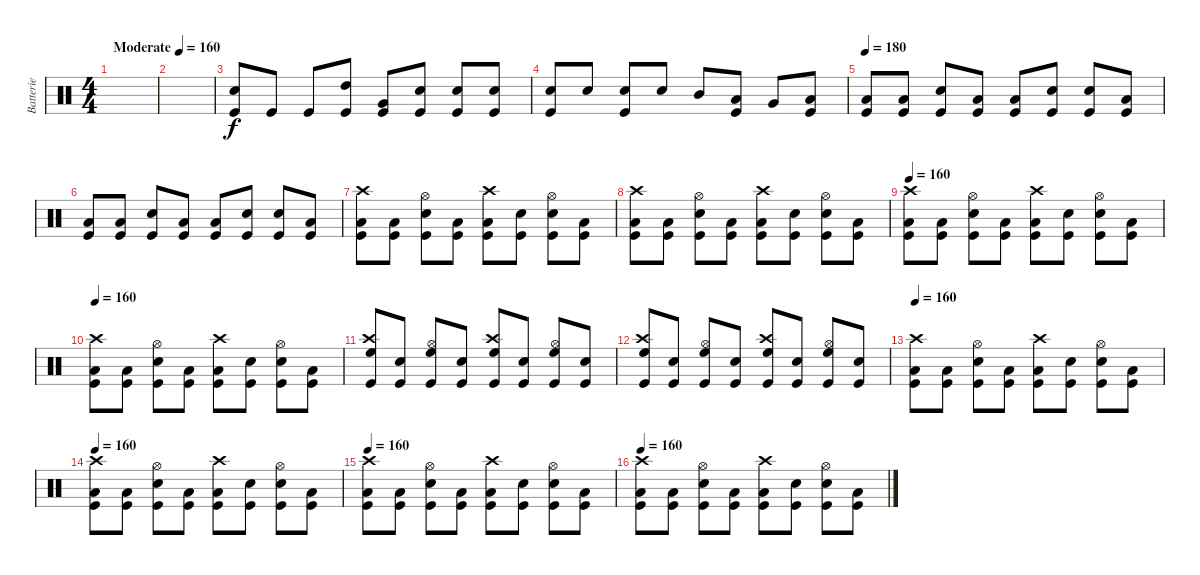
\track ("Batterie" "Batterie") {instrument percussion}
\staff {score}
\articulation defaults
\ts (4 4)
\tempo (160 "Moderate")
\tempo 180
\tempo (160 "Moderate")
\clef neutral
\ks c
|
|
("Kick (hit)" "Snare (hit) 2").8 "Kick (hit)".8 "Kick (hit)".8 ("High Tom (hit)" "Kick (hit)").8 ("Very Low Tom (hit)" "Kick (hit)").8 ("Snare (hit) 2" "Kick (hit)").8 ("Kick (hit)" "Snare (hit) 2").8 ("Kick (hit)" "Snare (hit) 2").8 |
("Snare (hit) 2" "Kick (hit)").8 "Snare (hit) 2".8 ("Snare (hit) 2" "Kick (hit)").8 "Snare (hit) 2".8 "Mid Tom (hit)".8 ("Low Tom (hit)" "Kick (hit)").8 "Very Low Tom (hit)".8 ("Low Floor Tom (hit)" "Kick (hit)").8 |
\tempo 180
("Kick (hit)" "Low Tom (hit)").8 ("Kick (hit)" "Low Tom (hit)").8 ("Kick (hit)" "Snare (hit) 2").8 ("Kick (hit)" "Low Tom (hit)").8 ("Kick (hit)" "Low Tom (hit)").8 ("Kick (hit)" "Snare (hit) 2").8 ("Kick (hit)" "Snare (hit) 2").8 ("Low Floor Tom (hit)" "Kick (hit)").8 |
("Kick (hit)" "Low Tom (hit)").8 ("Kick (hit)" "Low Tom (hit)").8 ("Kick (hit)" "Snare (hit) 2").8 ("Kick (hit)" "Low Tom (hit)").8 ("Kick (hit)" "Low Tom (hit)").8 ("Kick (hit)" "Snare (hit) 2").8 ("Kick (hit)" "Snare (hit) 2").8 ("Low Floor Tom (hit)" "Kick (hit)").8 |
("Kick (hit)" "Low Tom (hit)" "Crash high (hit)").8 ("Kick (hit)" "Low Tom (hit)").8 ("Kick (hit)" "Snare (hit) 2" "Hi-Hat (open)").8 ("Kick (hit)" "Low Tom (hit)").8 ("Kick (hit)" "Low Tom (hit)" "Crash high (hit)").8 ("Kick (hit)" "Snare (hit) 2").8 ("Kick (hit)" "Snare (hit) 2" "Hi-Hat (open)").8 ("Low Floor Tom (hit)" "Kick (hit)").8 |
("Kick (hit)" "Low Tom (hit)" "Crash high (hit)").8 ("Kick (hit)" "Low Tom (hit)").8 ("Kick (hit)" "Snare (hit) 2" "Hi-Hat (open)").8 ("Kick (hit)" "Low Tom (hit)").8 ("Kick (hit)" "Low Tom (hit)" "Crash high (hit)").8 ("Kick (hit)" "Snare (hit) 2").8 ("Kick (hit)" "Snare (hit) 2" "Hi-Hat (open)").8 ("Low Floor Tom (hit)" "Kick (hit)").8 |
\tempo 160
("Kick (hit)" "Low Tom (hit)" "Crash high (hit)").8 ("Kick (hit)" "Low Tom (hit)").8 ("Kick (hit)" "Snare (hit) 2" "Hi-Hat (open)").8 ("Kick (hit)" "Low Tom (hit)").8 ("Kick (hit)" "Low Tom (hit)" "Crash high (hit)").8 ("Kick (hit)" "Snare (hit) 2").8 ("Kick (hit)" "Snare (hit) 2" "Hi-Hat (open)").8 ("Low Floor Tom (hit)" "Kick (hit)").8 |
\tempo 160
("Kick (hit)" "Low Tom (hit)" "Crash high (hit)").8 ("Kick (hit)" "Low Tom (hit)").8 ("Kick (hit)" "Snare (hit) 2" "Hi-Hat (open)").8 ("Kick (hit)" "Low Tom (hit)").8 ("Kick (hit)" "Low Tom (hit)" "Crash high (hit)").8 ("Kick (hit)" "Snare (hit) 2").8 ("Kick (hit)" "Snare (hit) 2" "Hi-Hat (open)").8 ("Low Floor Tom (hit)" "Kick (hit)").8 |
("Kick (hit)" "High Floor Tom (hit)" "Crash high (hit)").8 ("Kick (hit)" "Snare (hit) 2").8 ("Kick (hit)" "High Floor Tom (hit)" "Hi-Hat (open)").8 ("Kick (hit)" "Snare (hit) 2").8 ("Kick (hit)" "High Floor Tom (hit)" "Crash high (hit)").8 ("Kick (hit)" "Snare (hit) 2").8 ("Kick (hit)" "High Floor Tom (hit)" "Hi-Hat (open)").8 ("Kick (hit)" "Snare (hit) 2").8 |
("Kick (hit)" "High Floor Tom (hit)" "Crash high (hit)").8 ("Kick (hit)" "Snare (hit) 2").8 ("Kick (hit)" "High Floor Tom (hit)" "Hi-Hat (open)").8 ("Kick (hit)" "Snare (hit) 2").8 ("Kick (hit)" "High Floor Tom (hit)" "Crash high (hit)").8 ("Kick (hit)" "Snare (hit) 2").8 ("Kick (hit)" "High Floor Tom (hit)" "Hi-Hat (open)").8 ("Kick (hit)" "Snare (hit) 2").8 |
\tempo 160
("Kick (hit)" "Low Tom (hit)" "Crash high (hit)").8 ("Kick (hit)" "Low Tom (hit)").8 ("Kick (hit)" "Snare (hit) 2" "Hi-Hat (open)").8 ("Kick (hit)" "Low Tom (hit)").8 ("Kick (hit)" "Low Tom (hit)" "Crash high (hit)").8 ("Kick (hit)" "Snare (hit) 2").8 ("Kick (hit)" "Snare (hit) 2" "Hi-Hat (open)").8 ("Low Floor Tom (hit)" "Kick (hit)").8 |
\tempo 160
("Kick (hit)" "Low Tom (hit)" "Crash high (hit)").8 ("Kick (hit)" "Low Tom (hit)").8 ("Kick (hit)" "Snare (hit) 2" "Hi-Hat (open)").8 ("Kick (hit)" "Low Tom (hit)").8 ("Kick (hit)" "Low Tom (hit)" "Crash high (hit)").8 ("Kick (hit)" "Snare (hit) 2").8 ("Kick (hit)" "Snare (hit) 2" "Hi-Hat (open)").8 ("Low Floor Tom (hit)" "Kick (hit)").8 |
\tempo 160
("Kick (hit)" "Low Tom (hit)" "Crash high (hit)").8 ("Kick (hit)" "Low Tom (hit)").8 ("Kick (hit)" "Snare (hit) 2" "Hi-Hat (open)").8 ("Kick (hit)" "Low Tom (hit)").8 ("Kick (hit)" "Low Tom (hit)" "Crash high (hit)").8 ("Kick (hit)" "Snare (hit) 2").8 ("Kick (hit)" "Snare (hit) 2" "Hi-Hat (open)").8 ("Low Floor Tom (hit)" "Kick (hit)").8 |
\tempo 160
("Kick (hit)" "Low Tom (hit)" "Crash high (hit)").8 ("Kick (hit)" "Low Tom (hit)").8 ("Kick (hit)" "Snare (hit) 2" "Hi-Hat (open)").8 ("Kick (hit)" "Low Tom (hit)").8 ("Kick (hit)" "Low Tom (hit)" "Crash high (hit)").8 ("Kick (hit)" "Snare (hit) 2").8 ("Kick (hit)" "Snare (hit) 2" "Hi-Hat (open)").8 ("Low Floor Tom (hit)" "Kick (hit)").8
